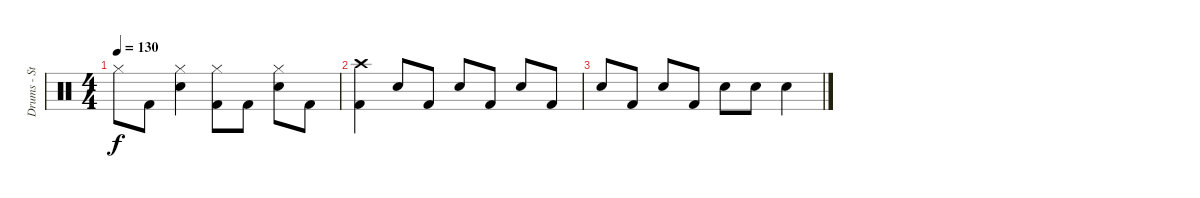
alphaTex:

\track ("Drums - Steven" "Drums - St") {instrument percussion}
\staff {score}
\articulation defaults
\ts (4 4)
\tempo 130
\clef neutral
\ks c "Hi-Hat (closed)".8{dy f} "Kick (hit) 2".8
("Electric Snare (hit)" "Hi-Hat (closed)").4 ("Kick (hit) 2" "Hi-Hat (closed)").8 "Kick (hit) 2".8 ("Electric Snare (hit)" "Hi-Hat (closed)").8 "Kick (hit) 2".8 |
("Kick (hit) 2" "Crash high (hit)").4 "Electric Snare (hit)".8 "Kick (hit) 2".8 "Electric Snare (hit)".8 "Kick (hit) 2".8 "Electric Snare (hit)".8 "Kick (hit) 2".8 |
"Electric Snare (hit)".8 "Kick (hit) 2".8 "Electric Snare (hit)".8 "Kick (hit) 2".8 "Electric Snare (hit)".8 "Electric Snare (hit)".8 "Electric Snare (hit)".4
